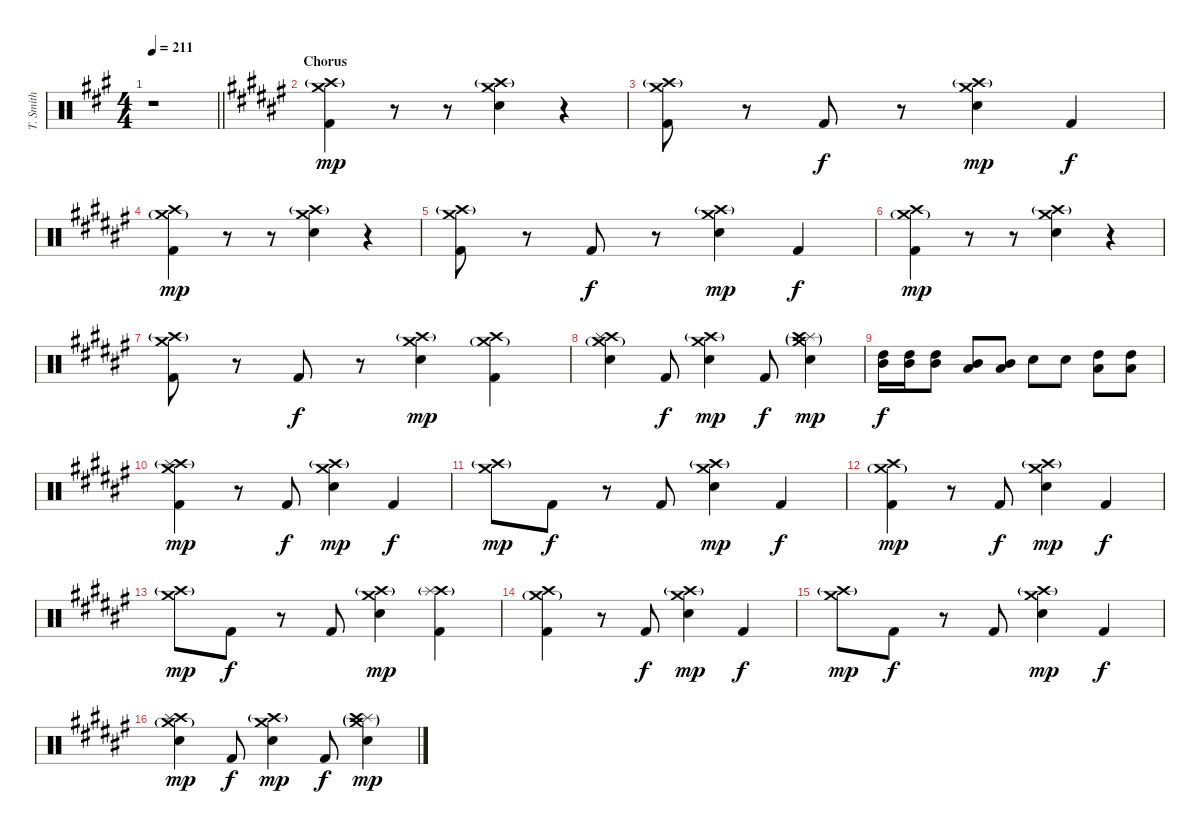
\track ("T. Smith" "T. Smith") {instrument percussion}
\staff {score}
\articulation defaults
\ts (4 4)
\tempo 211
\clef neutral
\barLineRight lightlight
\ks f#minor
r.1{dy mp} |
\section ("" "Chorus")
\ks d#minor
("Crash medium (hit)" "Crash high (hit)"{g} "Kick (hit) 2").4{volume 13 balance 8} r.8 r.8 ("Crash medium (hit)" "Crash high (hit)"{g} "Electric Snare (hit)").4 r.4 |
("Crash medium (hit)" "Crash high (hit)"{g} "Kick (hit) 2").8 r.8 "Kick (hit) 2".8{dy f} r.8 ("Crash medium (hit)" "Crash high (hit)"{g} "Electric Snare (hit)").4{dy mp} "Kick (hit) 2".4{dy f} |
("Crash medium (hit)"{g} "Crash high (hit)" "Kick (hit) 2").4{dy mp} r.8 r.8 ("Crash medium (hit)" "Crash high (hit)"{g} "Electric Snare (hit)").4 r.4 |
("Crash medium (hit)" "Crash high (hit)"{g} "Kick (hit) 2").8 r.8 "Kick (hit) 2".8{dy f} r.8 ("Crash medium (hit)" "Crash high (hit)"{g} "Electric Snare (hit)").4{dy mp} "Kick (hit) 2".4{dy f} |
("Crash medium (hit)"{g} "Crash high (hit)" "Kick (hit) 2").4{dy mp} r.8 r.8 ("Crash medium (hit)" "Crash high (hit)"{g} "Electric Snare (hit)").4 r.4 |
("Crash medium (hit)" "Crash high (hit)"{g} "Kick (hit) 2").8 r.8 "Kick (hit) 2".8{dy f} r.8 ("Crash medium (hit)" "Crash high (hit)"{g} "Electric Snare (hit)").4{dy mp} ("Crash medium (hit)"{g} "Crash high (hit)" "Kick (hit) 2").4 |
("Crash medium (hit)"{g} "Crash high (hit)" "Splash (hit)" "Electric Snare (hit)").4 "Kick (hit) 2".8{dy f} ("Crash medium (hit)" "Crash high (hit)"{g} "Electric Snare (hit)").4{dy mp} "Kick (hit) 2".8{dy f} ("Splash (hit)" "Crash high (hit)"{g} "Crash medium (hit)"{g} "Electric Snare (hit)").4{dy mp} |
("High Tom (hit)" "Mid Tom (hit)").16{dy f} ("High Tom (hit)" "Mid Tom (hit)").16 ("High Tom (hit)" "Mid Tom (hit)").8 ("Low Tom (hit)" "Mid Tom (hit)").8 ("Low Tom (hit)" "Mid Tom (hit)").8 "Electric Snare (hit)".8 "Electric Snare (hit)".8 ("Low Tom (hit)" "High Tom (hit)").8 ("Low Tom (hit)" "High Tom (hit)").8 |
("Crash medium (hit)" "Crash high (hit)"{g} "Splash (hit)" "Kick (hit) 2").4{dy mp} r.8 "Kick (hit) 2".8{dy f} ("Crash medium (hit)" "Crash high (hit)"{g} "Electric Snare (hit)").4{dy mp} "Kick (hit) 2".4{dy f} |
("Crash medium (hit)" "Crash high (hit)"{g}).8{dy mp} "Kick (hit) 2".8{dy f} r.8 "Kick (hit) 2".8 ("Crash medium (hit)" "Crash high (hit)"{g} "Electric Snare (hit)").4{dy mp} "Kick (hit) 2".4{dy f} |
("Crash medium (hit)"{g} "Crash high (hit)" "Kick (hit) 2").4{dy mp} r.8 "Kick (hit) 2".8{dy f} ("Crash medium (hit)" "Crash high (hit)"{g} "Electric Snare (hit)").4{dy mp} "Kick (hit) 2".4{dy f} |
("Crash medium (hit)" "Crash high (hit)"{g}).8{dy mp} "Kick (hit) 2".8{dy f} r.8 "Kick (hit) 2".8 ("Crash medium (hit)" "Crash high (hit)"{g} "Electric Snare (hit)").4{dy mp} ("Crash high (hit)"{g} "Splash (hit)" "Kick (hit) 2").4 |
("Crash medium (hit)"{g} "Crash high (hit)" "Kick (hit) 2").4 r.8 "Kick (hit) 2".8{dy f} ("Crash medium (hit)" "Crash high (hit)"{g} "Electric Snare (hit)").4{dy mp} "Kick (hit) 2".4{dy f} |
("Crash medium (hit)" "Crash high (hit)"{g}).8{dy mp} "Kick (hit) 2".8{dy f} r.8 "Kick (hit) 2".8 ("Crash medium (hit)" "Crash high (hit)"{g} "Electric Snare (hit)").4{dy mp} "Kick (hit) 2".4{dy f} |
("Crash medium (hit)"{g} "Crash high (hit)" "Splash (hit)" "Electric Snare (hit)").4{dy mp} "Kick (hit) 2".8{dy f} ("Crash medium (hit)" "Crash high (hit)"{g} "Electric Snare (hit)").4{dy mp} "Kick (hit) 2".8{dy f} ("Splash (hit)" "Crash high (hit)"{g} "Crash medium (hit)"{g} "Electric Snare (hit)").4{dy mp}
